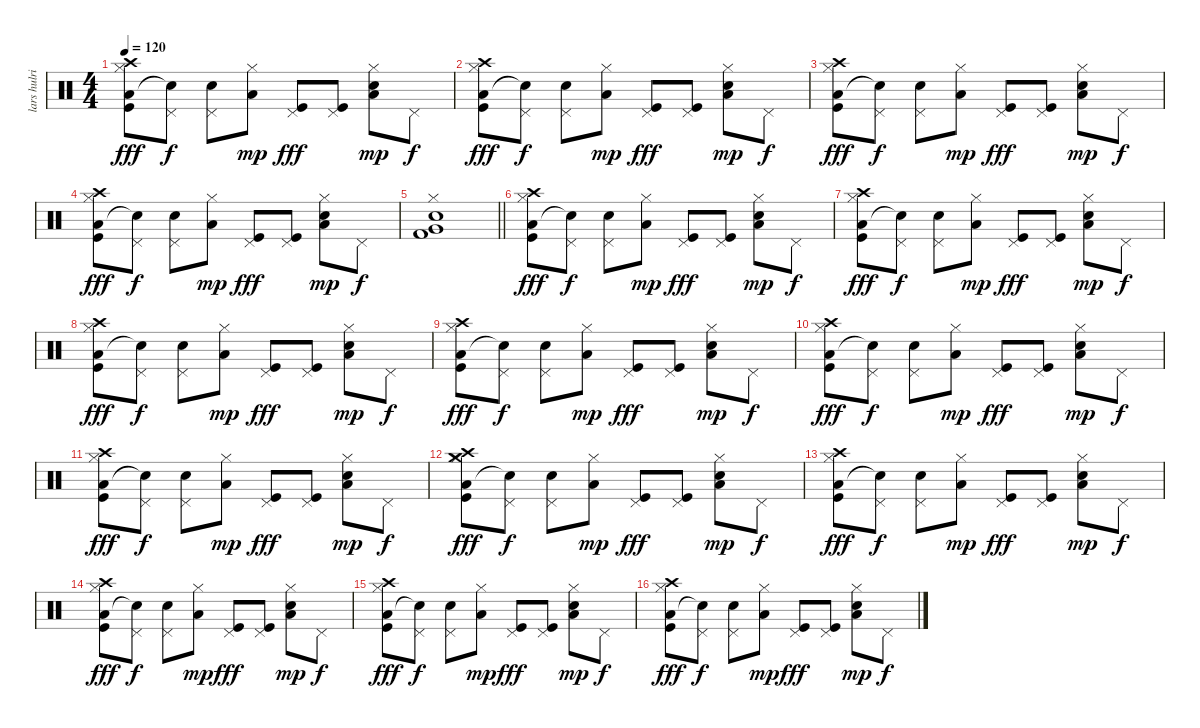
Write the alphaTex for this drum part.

\track ("lars hulrich" "lars hulri") {instrument percussion}
\staff {score}
\articulation defaults
\ts (4 4)
\tempo 120
\clef neutral
\ks c
("Hi-Hat (closed)" "Low Floor Tom (hit)" "Crash high (hit)" "Kick (hit)").8{dy fff} ("Pedal Hi-Hat (hit)" "Snare (hit)"{t}).8{dy f} ("Pedal Hi-Hat (hit)" "Electric Snare (hit)").8 ("Hi-Hat (closed)" "Low Floor Tom (hit)").8{dy mp} ("Pedal Hi-Hat (hit)" "Kick (hit)").8{dy fff} ("Pedal Hi-Hat (hit)" "Kick (hit)").8 ("Hi-Hat (closed)" "Low Floor Tom (hit)" "Electric Snare (hit)").8{dy mp} "Pedal Hi-Hat (hit)".8{dy f} |
("Hi-Hat (closed)" "Low Floor Tom (hit)" "Crash high (hit)" "Kick (hit)").8{dy fff} ("Pedal Hi-Hat (hit)" "Snare (hit)"{t}).8{dy f} ("Pedal Hi-Hat (hit)" "Electric Snare (hit)").8 ("Hi-Hat (closed)" "Low Floor Tom (hit)").8{dy mp} ("Pedal Hi-Hat (hit)" "Kick (hit)").8{dy fff} ("Pedal Hi-Hat (hit)" "Kick (hit)").8 ("Hi-Hat (closed)" "Low Floor Tom (hit)" "Electric Snare (hit)").8{dy mp} "Pedal Hi-Hat (hit)".8{dy f} |
("Hi-Hat (closed)" "Low Floor Tom (hit)" "Crash high (hit)" "Kick (hit)").8{dy fff} ("Pedal Hi-Hat (hit)" "Snare (hit)"{t}).8{dy f} ("Pedal Hi-Hat (hit)" "Electric Snare (hit)").8 ("Hi-Hat (closed)" "Low Floor Tom (hit)").8{dy mp} ("Pedal Hi-Hat (hit)" "Kick (hit)").8{dy fff} ("Pedal Hi-Hat (hit)" "Kick (hit)").8 ("Hi-Hat (closed)" "Low Floor Tom (hit)" "Electric Snare (hit)").8{dy mp} "Pedal Hi-Hat (hit)".8{dy f} |
("Hi-Hat (closed)" "Low Floor Tom (hit)" "Crash high (hit)" "Kick (hit)").8{dy fff} ("Pedal Hi-Hat (hit)" "Snare (hit)"{t}).8{dy f} ("Pedal Hi-Hat (hit)" "Electric Snare (hit)").8 ("Hi-Hat (closed)" "Low Floor Tom (hit)").8{dy mp} ("Pedal Hi-Hat (hit)" "Kick (hit)").8{dy fff} ("Pedal Hi-Hat (hit)" "Kick (hit)").8 ("Hi-Hat (closed)" "Low Floor Tom (hit)" "Electric Snare (hit)").8{dy mp} "Pedal Hi-Hat (hit)".8{dy f} |
\barLineRight lightlight
("Kick (hit) 2" "Very Low Tom (hit)" "Electric Snare (hit)" "Hi-Hat (closed)").1 |
("Hi-Hat (closed)" "Low Floor Tom (hit)" "Crash high (hit)" "Kick (hit)").8{dy fff} ("Pedal Hi-Hat (hit)" "Snare (hit)"{t}).8{dy f} ("Pedal Hi-Hat (hit)" "Electric Snare (hit)").8 ("Hi-Hat (closed)" "Low Floor Tom (hit)").8{dy mp} ("Pedal Hi-Hat (hit)" "Kick (hit)").8{dy fff} ("Pedal Hi-Hat (hit)" "Kick (hit)").8 ("Hi-Hat (closed)" "Low Floor Tom (hit)" "Electric Snare (hit)").8{dy mp} "Pedal Hi-Hat (hit)".8{dy f} |
("Hi-Hat (closed)" "Low Floor Tom (hit)" "Crash high (hit)" "Kick (hit)").8{dy fff} ("Pedal Hi-Hat (hit)" "Snare (hit)"{t}).8{dy f} ("Pedal Hi-Hat (hit)" "Electric Snare (hit)").8 ("Hi-Hat (closed)" "Low Floor Tom (hit)").8{dy mp} ("Pedal Hi-Hat (hit)" "Kick (hit)").8{dy fff} ("Pedal Hi-Hat (hit)" "Kick (hit)").8 ("Hi-Hat (closed)" "Low Floor Tom (hit)" "Electric Snare (hit)").8{dy mp} "Pedal Hi-Hat (hit)".8{dy f} |
("Hi-Hat (closed)" "Low Floor Tom (hit)" "Crash high (hit)" "Kick (hit)").8{dy fff} ("Pedal Hi-Hat (hit)" "Snare (hit)"{t}).8{dy f} ("Pedal Hi-Hat (hit)" "Electric Snare (hit)").8 ("Hi-Hat (closed)" "Low Floor Tom (hit)").8{dy mp} ("Pedal Hi-Hat (hit)" "Kick (hit)").8{dy fff} ("Pedal Hi-Hat (hit)" "Kick (hit)").8 ("Hi-Hat (closed)" "Low Floor Tom (hit)" "Electric Snare (hit)").8{dy mp} "Pedal Hi-Hat (hit)".8{dy f} |
("Hi-Hat (closed)" "Low Floor Tom (hit)" "Crash high (hit)" "Kick (hit)").8{dy fff} ("Pedal Hi-Hat (hit)" "Snare (hit)"{t}).8{dy f} ("Pedal Hi-Hat (hit)" "Electric Snare (hit)").8 ("Hi-Hat (closed)" "Low Floor Tom (hit)").8{dy mp} ("Pedal Hi-Hat (hit)" "Kick (hit)").8{dy fff} ("Pedal Hi-Hat (hit)" "Kick (hit)").8 ("Hi-Hat (closed)" "Low Floor Tom (hit)" "Electric Snare (hit)").8{dy mp} "Pedal Hi-Hat (hit)".8{dy f} |
("Hi-Hat (closed)" "Low Floor Tom (hit)" "Crash high (hit)" "Kick (hit)").8{dy fff} ("Pedal Hi-Hat (hit)" "Snare (hit)"{t}).8{dy f} ("Pedal Hi-Hat (hit)" "Electric Snare (hit)").8 ("Hi-Hat (closed)" "Low Floor Tom (hit)").8{dy mp} ("Pedal Hi-Hat (hit)" "Kick (hit)").8{dy fff} ("Pedal Hi-Hat (hit)" "Kick (hit)").8 ("Hi-Hat (closed)" "Low Floor Tom (hit)" "Electric Snare (hit)").8{dy mp} "Pedal Hi-Hat (hit)".8{dy f} |
("Hi-Hat (closed)" "Low Floor Tom (hit)" "Crash high (hit)" "Kick (hit)").8{dy fff} ("Pedal Hi-Hat (hit)" "Snare (hit)"{t}).8{dy f} ("Pedal Hi-Hat (hit)" "Electric Snare (hit)").8 ("Hi-Hat (closed)" "Low Floor Tom (hit)").8{dy mp} ("Pedal Hi-Hat (hit)" "Kick (hit)").8{dy fff} ("Pedal Hi-Hat (hit)" "Kick (hit)").8 ("Hi-Hat (closed)" "Low Floor Tom (hit)" "Electric Snare (hit)").8{dy mp} "Pedal Hi-Hat (hit)".8{dy f} |
("Hi-Hat (closed)" "Low Floor Tom (hit)" "Crash high (hit)" "Crash medium (hit)" "Kick (hit)").8{dy fff} ("Pedal Hi-Hat (hit)" "Snare (hit)"{t}).8{dy f} ("Pedal Hi-Hat (hit)" "Electric Snare (hit)").8 ("Hi-Hat (closed)" "Low Floor Tom (hit)").8{dy mp} ("Pedal Hi-Hat (hit)" "Kick (hit)").8{dy fff} ("Pedal Hi-Hat (hit)" "Kick (hit)").8 ("Hi-Hat (closed)" "Low Floor Tom (hit)" "Electric Snare (hit)").8{dy mp} "Pedal Hi-Hat (hit)".8{dy f} |
("Hi-Hat (closed)" "Low Floor Tom (hit)" "Crash high (hit)" "Kick (hit)").8{dy fff} ("Pedal Hi-Hat (hit)" "Snare (hit)"{t}).8{dy f} ("Pedal Hi-Hat (hit)" "Electric Snare (hit)").8 ("Hi-Hat (closed)" "Low Floor Tom (hit)").8{dy mp} ("Pedal Hi-Hat (hit)" "Kick (hit)").8{dy fff} ("Pedal Hi-Hat (hit)" "Kick (hit)").8 ("Hi-Hat (closed)" "Low Floor Tom (hit)" "Electric Snare (hit)").8{dy mp} "Pedal Hi-Hat (hit)".8{dy f} |
("Hi-Hat (closed)" "Low Floor Tom (hit)" "Crash high (hit)" "Kick (hit)").8{dy fff} ("Pedal Hi-Hat (hit)" "Snare (hit)"{t}).8{dy f} ("Pedal Hi-Hat (hit)" "Electric Snare (hit)").8 ("Hi-Hat (closed)" "Low Floor Tom (hit)").8{dy mp} ("Pedal Hi-Hat (hit)" "Kick (hit)").8{dy fff} ("Pedal Hi-Hat (hit)" "Kick (hit)").8 ("Hi-Hat (closed)" "Low Floor Tom (hit)" "Electric Snare (hit)").8{dy mp} "Pedal Hi-Hat (hit)".8{dy f} |
("Hi-Hat (closed)" "Low Floor Tom (hit)" "Crash high (hit)" "Kick (hit)").8{dy fff} ("Pedal Hi-Hat (hit)" "Snare (hit)"{t}).8{dy f} ("Pedal Hi-Hat (hit)" "Electric Snare (hit)").8 ("Hi-Hat (closed)" "Low Floor Tom (hit)").8{dy mp} ("Pedal Hi-Hat (hit)" "Kick (hit)").8{dy fff} ("Pedal Hi-Hat (hit)" "Kick (hit)").8 ("Hi-Hat (closed)" "Low Floor Tom (hit)" "Electric Snare (hit)").8{dy mp} "Pedal Hi-Hat (hit)".8{dy f} |
("Hi-Hat (closed)" "Low Floor Tom (hit)" "Crash high (hit)" "Kick (hit)").8{dy fff} ("Pedal Hi-Hat (hit)" "Snare (hit)"{t}).8{dy f} ("Pedal Hi-Hat (hit)" "Electric Snare (hit)").8 ("Hi-Hat (closed)" "Low Floor Tom (hit)").8{dy mp} ("Pedal Hi-Hat (hit)" "Kick (hit)").8{dy fff} ("Pedal Hi-Hat (hit)" "Kick (hit)").8 ("Hi-Hat (closed)" "Low Floor Tom (hit)" "Electric Snare (hit)").8{dy mp} "Pedal Hi-Hat (hit)".8{dy f}
